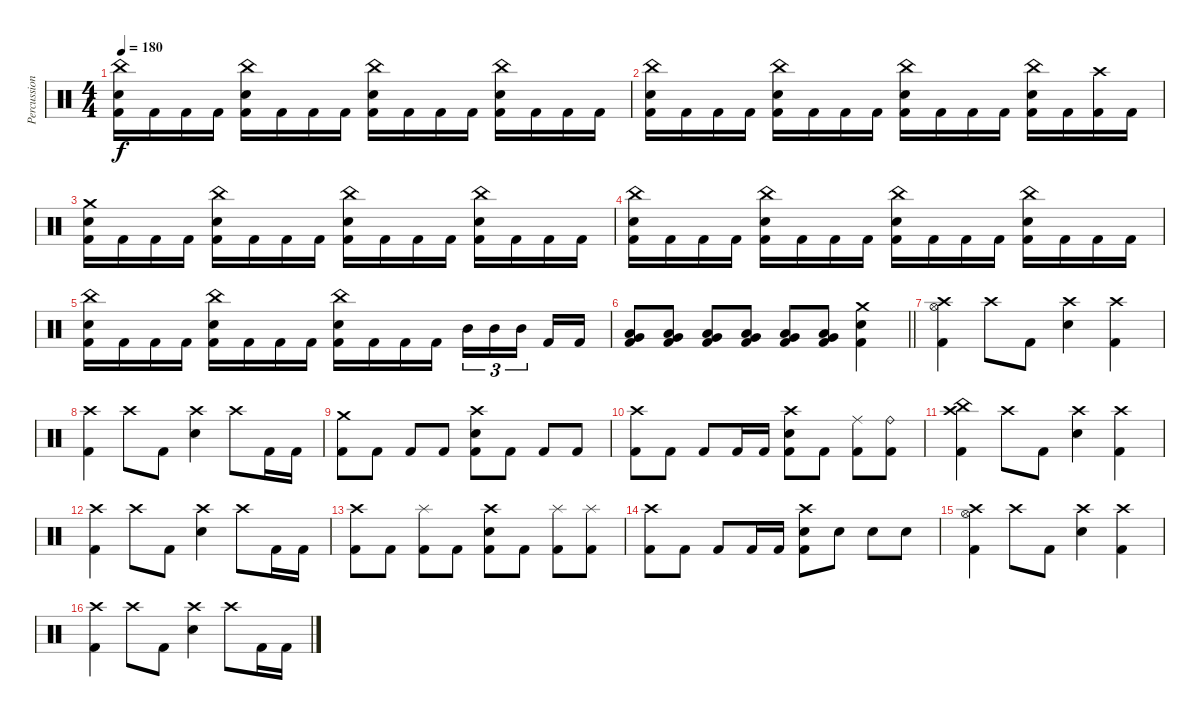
\track ("Percussions" "Percussion") {instrument percussion}
\staff {score}
\articulation defaults
\ts (4 4)
\tempo 180
\clef neutral
\ks c
("China (hit)" "Electric Snare (hit)" "Kick (hit) 2").16{dy f} "Kick (hit) 2".16 "Kick (hit) 2".16 "Kick (hit) 2".16 ("China (hit)" "Electric Snare (hit)" "Kick (hit) 2").16 "Kick (hit) 2".16 "Kick (hit) 2".16 "Kick (hit) 2".16 ("China (hit)" "Electric Snare (hit)" "Kick (hit) 2").16 "Kick (hit) 2".16 "Kick (hit) 2".16 "Kick (hit) 2".16 ("China (hit)" "Electric Snare (hit)" "Kick (hit) 2").16 "Kick (hit) 2".16 "Kick (hit) 2".16 "Kick (hit) 2".16 |
("China (hit)" "Electric Snare (hit)" "Kick (hit) 2").16 "Kick (hit) 2".16 "Kick (hit) 2".16 "Kick (hit) 2".16 ("China (hit)" "Electric Snare (hit)" "Kick (hit) 2").16 "Kick (hit) 2".16 "Kick (hit) 2".16 "Kick (hit) 2".16 ("China (hit)" "Electric Snare (hit)" "Kick (hit) 2").16 "Kick (hit) 2".16 "Kick (hit) 2".16 "Kick (hit) 2".16 ("China (hit)" "Electric Snare (hit)" "Kick (hit) 2").16 "Kick (hit) 2".16 ("Crash high (hit)" "Kick (hit) 2").16 "Kick (hit) 2".16 |
("Crash medium (hit)" "Electric Snare (hit)" "Kick (hit) 2").16 "Kick (hit) 2".16 "Kick (hit) 2".16 "Kick (hit) 2".16 ("China (hit)" "Electric Snare (hit)" "Kick (hit) 2").16 "Kick (hit) 2".16 "Kick (hit) 2".16 "Kick (hit) 2".16 ("China (hit)" "Electric Snare (hit)" "Kick (hit) 2").16 "Kick (hit) 2".16 "Kick (hit) 2".16 "Kick (hit) 2".16 ("China (hit)" "Electric Snare (hit)" "Kick (hit) 2").16 "Kick (hit) 2".16 "Kick (hit) 2".16 "Kick (hit) 2".16 |
("China (hit)" "Electric Snare (hit)" "Kick (hit) 2").16 "Kick (hit) 2".16 "Kick (hit) 2".16 "Kick (hit) 2".16 ("China (hit)" "Electric Snare (hit)" "Kick (hit) 2").16 "Kick (hit) 2".16 "Kick (hit) 2".16 "Kick (hit) 2".16 ("China (hit)" "Electric Snare (hit)" "Kick (hit) 2").16 "Kick (hit) 2".16 "Kick (hit) 2".16 "Kick (hit) 2".16 ("China (hit)" "Electric Snare (hit)" "Kick (hit) 2").16 "Kick (hit) 2".16 "Kick (hit) 2".16 "Kick (hit) 2".16 |
("China (hit)" "Electric Snare (hit)" "Kick (hit) 2").16 "Kick (hit) 2".16 "Kick (hit) 2".16 "Kick (hit) 2".16 ("China (hit)" "Electric Snare (hit)" "Kick (hit) 2").16 "Kick (hit) 2".16 "Kick (hit) 2".16 "Kick (hit) 2".16 ("China (hit)" "Electric Snare (hit)" "Kick (hit) 2").16 "Kick (hit) 2".16 "Kick (hit) 2".16 "Kick (hit) 2".16 "Mid Tom (hit)".16{tu (3 2)} "Mid Tom (hit)".16{tu (3 2)} "Mid Tom (hit)".16{tu (3 2) beam splitsecondary} "Kick (hit) 2".16 "Kick (hit) 2".16 |
\barLineRight lightlight
("Low Tom (hit)" "Very Low Tom (hit)" "Kick (hit) 2").8 ("Low Tom (hit)" "Very Low Tom (hit)" "Kick (hit) 2").8 ("Low Tom (hit)" "Very Low Tom (hit)" "Kick (hit) 2").8 ("Low Tom (hit)" "Very Low Tom (hit)" "Kick (hit) 2").8 ("Low Tom (hit)" "Very Low Tom (hit)" "Kick (hit) 2").8 ("Low Tom (hit)" "Very Low Tom (hit)" "Kick (hit) 2").8 ("Crash medium (hit)" "Electric Snare (hit)" "Kick (hit) 2").4 |
("Crash high (hit)" "Hi-Hat (open)" "Kick (hit) 2").4 "Crash high (hit)".8 "Kick (hit) 2".8 ("Crash high (hit)" "Electric Snare (hit)").4 ("Crash high (hit)" "Kick (hit) 2").4 |
("Crash high (hit)" "Kick (hit) 2").4 "Crash high (hit)".8 "Kick (hit) 2".8 ("Crash high (hit)" "Electric Snare (hit)").4 "Crash high (hit)".8 "Kick (hit) 2".16 "Kick (hit) 2".16 |
("Crash medium (hit)" "Kick (hit) 2").8 "Kick (hit) 2".8 "Kick (hit) 2".8 "Kick (hit) 2".8 ("Crash high (hit)" "Electric Snare (hit)" "Kick (hit) 2").8 "Kick (hit) 2".8 "Kick (hit) 2".8 "Kick (hit) 2".8 |
("Crash high (hit)" "Kick (hit) 2").8 "Kick (hit) 2".8 "Kick (hit) 2".8 "Kick (hit) 2".16 "Kick (hit) 2".16 ("Crash high (hit)" "Electric Snare (hit)" "Kick (hit) 2").8 "Kick (hit) 2".8 ("Ride (middle)" "Kick (hit) 2").8 ("Ride (bell)" "Kick (hit) 2").8 |
("Crash high (hit)" "China (hit)" "Kick (hit) 2").4 "Crash high (hit)".8 "Kick (hit) 2".8 ("Crash high (hit)" "Electric Snare (hit)").4 ("Crash high (hit)" "Kick (hit) 2").4 |
("Crash high (hit)" "Kick (hit) 2").4 "Crash high (hit)".8 "Kick (hit) 2".8 ("Crash high (hit)" "Electric Snare (hit)").4 "Crash high (hit)".8 "Kick (hit) 2".16 "Kick (hit) 2".16 |
("Crash high (hit)" "Kick (hit) 2").8 "Kick (hit) 2".8 ("Splash (hit)" "Kick (hit) 2").8 "Kick (hit) 2".8 ("Crash high (hit)" "Electric Snare (hit)" "Kick (hit) 2").8 "Kick (hit) 2".8 ("Splash (hit)" "Kick (hit) 2").8 ("Splash (hit)" "Kick (hit) 2").8 |
("Crash high (hit)" "Kick (hit) 2").8 "Kick (hit) 2".8 "Kick (hit) 2".8 "Kick (hit) 2".16 "Kick (hit) 2".16 ("Crash high (hit)" "Electric Snare (hit)" "Kick (hit) 2").8 "Electric Snare (hit)".8 "Electric Snare (hit)".8 "Electric Snare (hit)".8 |
("Crash high (hit)" "Hi-Hat (open)" "Kick (hit) 2").4 "Crash high (hit)".8 "Kick (hit) 2".8 ("Crash high (hit)" "Electric Snare (hit)").4 ("Crash high (hit)" "Kick (hit) 2").4 |
("Crash high (hit)" "Kick (hit) 2").4 "Crash high (hit)".8 "Kick (hit) 2".8 ("Crash high (hit)" "Electric Snare (hit)").4 "Crash high (hit)".8 "Kick (hit) 2".16 "Kick (hit) 2".16
